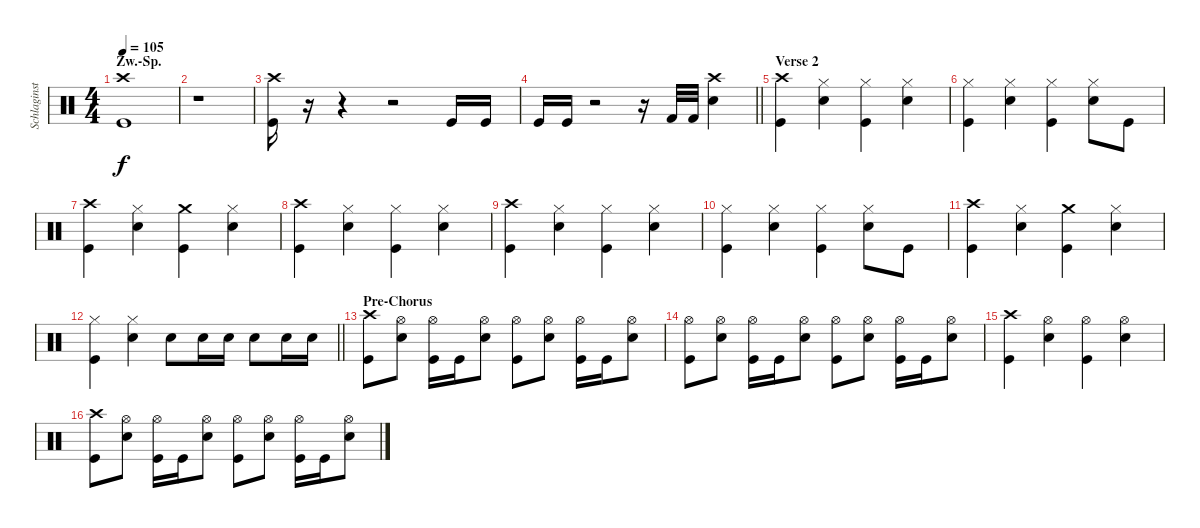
\track ("Schlaginstrumente - Auswahl" "Schlaginst") {instrument percussion}
\staff {score}
\articulation defaults
\ts (4 4)
\section ("" "Zw.-Sp.")
\tempo 105
\clef neutral
\ks c
("Crash high (hit)" "Kick (hit)").1{dy f} |
r.1 |
("Crash high (hit)" "Kick (hit)").16 r.16 r.4 r.2 "Kick (hit)".16 "Kick (hit)".16 |
\barLineRight lightlight "Kick (hit)".16 "Kick (hit)".16
r.2 r.16 "Kick (hit) 2".32 "Kick (hit) 2".32 ("Snare (hit) 2" "Crash high (hit)").4 |
\section ("" "Verse 2")
("Crash high (hit)" "Kick (hit)").4 ("Hi-Hat (closed)" "Snare (hit) 2").4 ("Kick (hit)" "Hi-Hat (closed)").4 ("Snare (hit) 2" "Hi-Hat (closed)").4 |
("Kick (hit)" "Hi-Hat (closed)").4 ("Hi-Hat (closed)" "Snare (hit) 2").4 ("Kick (hit)" "Hi-Hat (closed)").4 ("Snare (hit) 2" "Hi-Hat (closed)").8 "Kick (hit)".8 |
("Crash high (hit)" "Kick (hit)").4 ("Hi-Hat (closed)" "Snare (hit) 2").4 ("Kick (hit)" "Crash medium (hit)").4 ("Snare (hit) 2" "Hi-Hat (closed)").4 |
("Crash high (hit)" "Kick (hit)").4 ("Hi-Hat (closed)" "Snare (hit) 2").4 ("Kick (hit)" "Hi-Hat (closed)").4 ("Snare (hit) 2" "Hi-Hat (closed)").4 |
("Crash high (hit)" "Kick (hit)").4 ("Hi-Hat (closed)" "Snare (hit) 2").4 ("Kick (hit)" "Hi-Hat (closed)").4 ("Snare (hit) 2" "Hi-Hat (closed)").4 |
("Kick (hit)" "Hi-Hat (closed)").4 ("Hi-Hat (closed)" "Snare (hit) 2").4 ("Kick (hit)" "Hi-Hat (closed)").4 ("Snare (hit) 2" "Hi-Hat (closed)").8 "Kick (hit)".8 |
("Crash high (hit)" "Kick (hit)").4 ("Hi-Hat (closed)" "Snare (hit) 2").4 ("Kick (hit)" "Crash medium (hit)").4 ("Snare (hit) 2" "Hi-Hat (closed)").4 |
\barLineRight lightlight
("Hi-Hat (closed)" "Kick (hit)").4 ("Hi-Hat (closed)" "Snare (hit) 2").4 "Snare (hit) 2".8 "Snare (hit) 2".16 "Snare (hit) 2".16 "Snare (hit) 2".8 "Snare (hit) 2".16 "Snare (hit) 2".16 |
\section ("" "Pre-Chorus")
("Crash high (hit)" "Kick (hit)").8 ("Snare (hit) 2" "Hi-Hat (open)").8 ("Kick (hit)" "Hi-Hat (open)").16 "Kick (hit)".16 ("Hi-Hat (open)" "Snare (hit) 2").8 ("Hi-Hat (open)" "Kick (hit)").8 ("Snare (hit) 2" "Hi-Hat (open)").8 ("Kick (hit)" "Hi-Hat (open)").16 "Kick (hit)".16 ("Hi-Hat (open)" "Snare (hit) 2").8 |
("Hi-Hat (open)" "Kick (hit)").8 ("Snare (hit) 2" "Hi-Hat (open)").8 ("Kick (hit)" "Hi-Hat (open)").16 "Kick (hit)".16 ("Hi-Hat (open)" "Snare (hit) 2").8 ("Hi-Hat (open)" "Kick (hit)").8 ("Snare (hit) 2" "Hi-Hat (open)").8 ("Kick (hit)" "Hi-Hat (open)").16 "Kick (hit)".16 ("Hi-Hat (open)" "Snare (hit) 2").8 |
("Kick (hit)" "Crash high (hit)").4 ("Hi-Hat (open)" "Snare (hit) 2").4 ("Kick (hit)" "Hi-Hat (open)").4 ("Snare (hit) 2" "Hi-Hat (open)").4 |
("Crash high (hit)" "Kick (hit)").8 ("Snare (hit) 2" "Hi-Hat (open)").8 ("Kick (hit)" "Hi-Hat (open)").16 "Kick (hit)".16 ("Hi-Hat (open)" "Snare (hit) 2").8 ("Hi-Hat (open)" "Kick (hit)").8 ("Snare (hit) 2" "Hi-Hat (open)").8 ("Kick (hit)" "Hi-Hat (open)").16 "Kick (hit)".16 ("Hi-Hat (open)" "Snare (hit) 2").8
